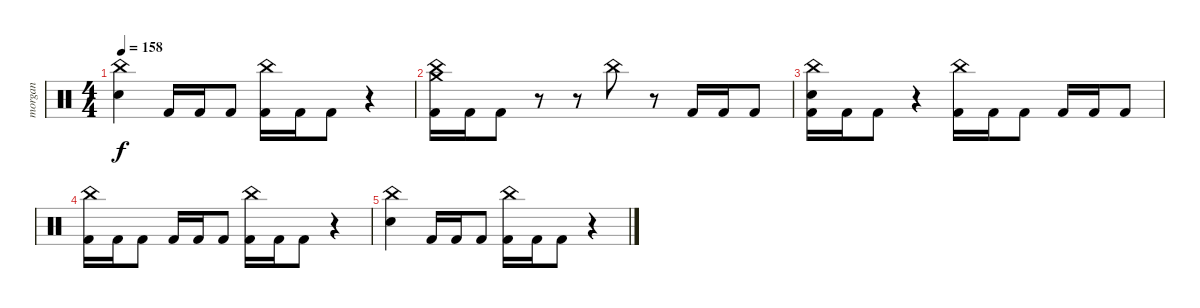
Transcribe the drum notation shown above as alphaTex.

\track ("morgan" "morgan") {instrument percussion}
\staff {score}
\articulation defaults
\ts (4 4)
\tempo 158
\clef neutral
\ks c
("China (hit)" "Electric Snare (hit)").4{dy f} "Kick (hit) 2".16 "Kick (hit) 2".16 "Kick (hit) 2".8 ("China (hit)" "Kick (hit) 2").16 "Kick (hit) 2".16 "Kick (hit) 2".8 r.4 |
("Crash medium (hit)" "China (hit)" "Kick (hit) 2").16 "Kick (hit) 2".16 "Kick (hit) 2".8 r.8 r.8 "China (hit)".8 r.8 "Kick (hit) 2".16 "Kick (hit) 2".16 "Kick (hit) 2".8 |
("China (hit)" "Electric Snare (hit)" "Kick (hit) 2").16 "Kick (hit) 2".16 "Kick (hit) 2".8 r.4 ("China (hit)" "Kick (hit) 2").16 "Kick (hit) 2".16 "Kick (hit) 2".8 "Kick (hit) 2".16 "Kick (hit) 2".16 "Kick (hit) 2".8 |
("China (hit)" "Kick (hit) 2").16 "Kick (hit) 2".16 "Kick (hit) 2".8 "Kick (hit) 2".16 "Kick (hit) 2".16 "Kick (hit) 2".8 ("China (hit)" "Kick (hit) 2").16 "Kick (hit) 2".16 "Kick (hit) 2".8 r.4 |
("China (hit)" "Electric Snare (hit)").4 "Kick (hit) 2".16 "Kick (hit) 2".16 "Kick (hit) 2".8 ("China (hit)" "Kick (hit) 2").16 "Kick (hit) 2".16 "Kick (hit) 2".8 r.4
